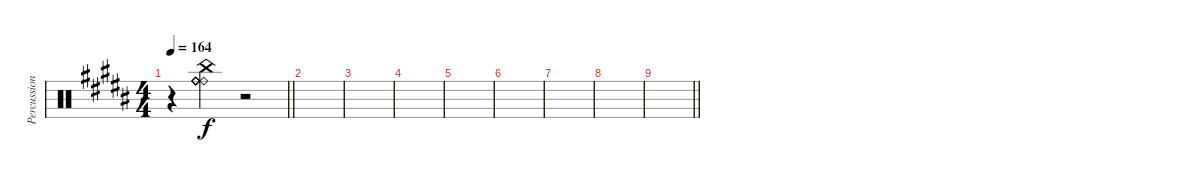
\track ("Percussion" "Percussion") {instrument percussion}
\staff {score}
\articulation defaults
\ts (4 4)
\tempo 164
\clef neutral
\barLineRight lightlight
\ks g#minor
r.4{dy f} ("China (hit)" "Ride (bell)" "Ride (bell)" "Ride (bell)" "Ride (bell)" "Ride (bell)").4 r.2 |
|
|
|
|
|
|
|
\barLineRight lightlight
